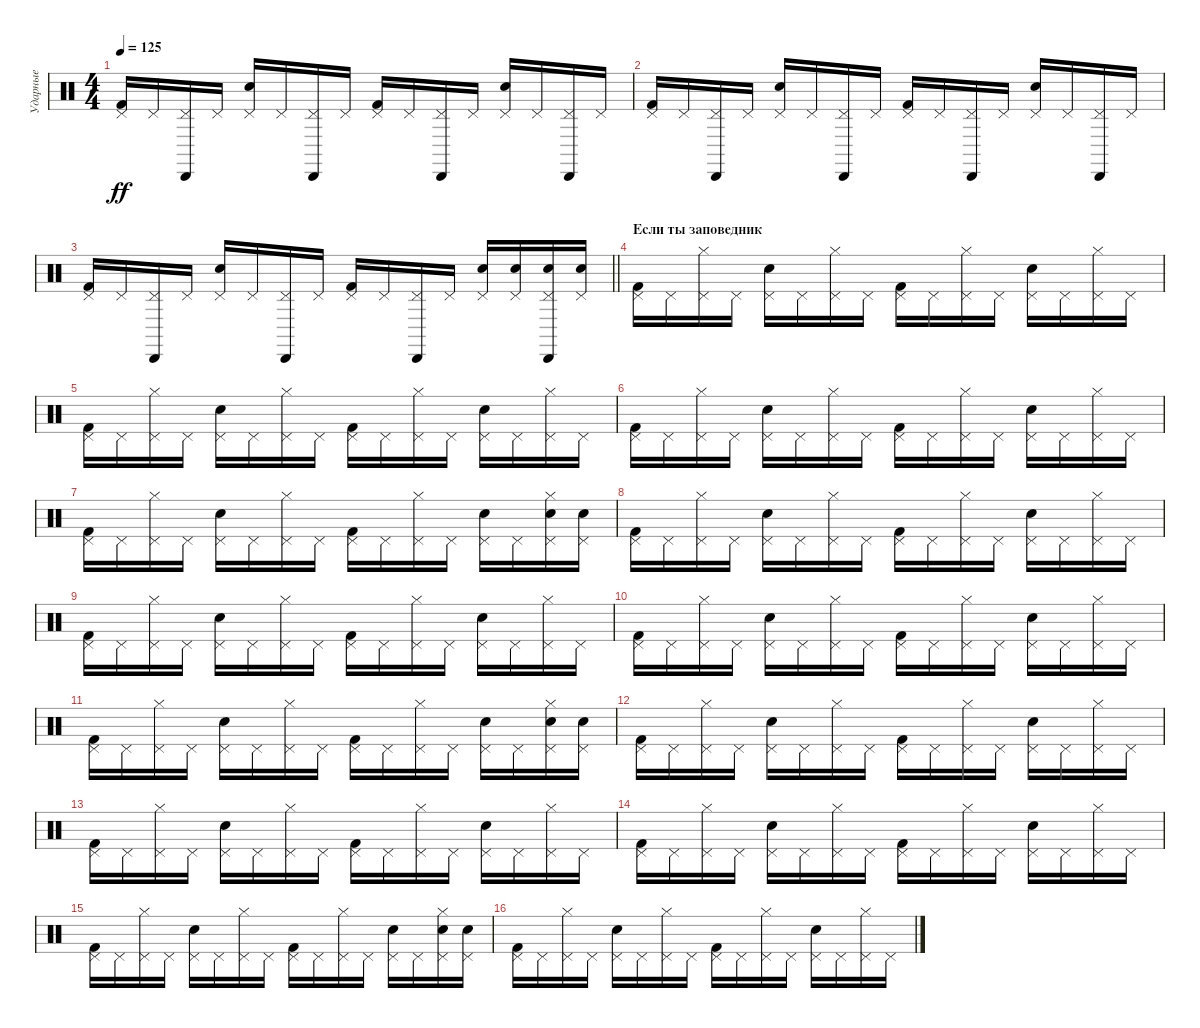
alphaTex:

\track ("Ударные" "Ударные") {instrument percussion}
\staff {score}
\articulation defaults
\ts (4 4)
\tempo 125
\clef neutral
\ks c
("Kick (hit) 2" "Pedal Hi-Hat (hit)").16{dy ff} "Pedal Hi-Hat (hit)".16 ("Cabasa (hit)" "Pedal Hi-Hat (hit)").16 "Pedal Hi-Hat (hit)".16 ("Snare (hit) 2" "Pedal Hi-Hat (hit)").16 "Pedal Hi-Hat (hit)".16 ("Cabasa (hit)" "Pedal Hi-Hat (hit)").16 "Pedal Hi-Hat (hit)".16 ("Kick (hit) 2" "Pedal Hi-Hat (hit)").16 "Pedal Hi-Hat (hit)".16 ("Cabasa (hit)" "Pedal Hi-Hat (hit)").16 "Pedal Hi-Hat (hit)".16 ("Snare (hit) 2" "Pedal Hi-Hat (hit)").16 "Pedal Hi-Hat (hit)".16 ("Cabasa (hit)" "Pedal Hi-Hat (hit)").16 "Pedal Hi-Hat (hit)".16 |
("Kick (hit) 2" "Pedal Hi-Hat (hit)").16 "Pedal Hi-Hat (hit)".16 ("Cabasa (hit)" "Pedal Hi-Hat (hit)").16 "Pedal Hi-Hat (hit)".16 ("Snare (hit) 2" "Pedal Hi-Hat (hit)").16 "Pedal Hi-Hat (hit)".16 ("Cabasa (hit)" "Pedal Hi-Hat (hit)").16 "Pedal Hi-Hat (hit)".16 ("Kick (hit) 2" "Pedal Hi-Hat (hit)").16 "Pedal Hi-Hat (hit)".16 ("Cabasa (hit)" "Pedal Hi-Hat (hit)").16 "Pedal Hi-Hat (hit)".16 ("Snare (hit) 2" "Pedal Hi-Hat (hit)").16 "Pedal Hi-Hat (hit)".16 ("Cabasa (hit)" "Pedal Hi-Hat (hit)").16 "Pedal Hi-Hat (hit)".16 |
\barLineRight lightlight
("Kick (hit) 2" "Pedal Hi-Hat (hit)").16 "Pedal Hi-Hat (hit)".16 ("Cabasa (hit)" "Pedal Hi-Hat (hit)").16 "Pedal Hi-Hat (hit)".16 ("Snare (hit) 2" "Pedal Hi-Hat (hit)").16 "Pedal Hi-Hat (hit)".16 ("Cabasa (hit)" "Pedal Hi-Hat (hit)").16 "Pedal Hi-Hat (hit)".16 ("Kick (hit) 2" "Pedal Hi-Hat (hit)").16 "Pedal Hi-Hat (hit)".16 ("Cabasa (hit)" "Pedal Hi-Hat (hit)").16 "Pedal Hi-Hat (hit)".16 ("Snare (hit) 2" "Pedal Hi-Hat (hit)").16 ("Snare (hit) 2" "Pedal Hi-Hat (hit)").16 ("Cabasa (hit)" "Snare (hit) 2" "Pedal Hi-Hat (hit)").16 ("Snare (hit) 2" "Pedal Hi-Hat (hit)").16 |
\section ("" "Если ты заповедник")
("Kick (hit) 2" "Pedal Hi-Hat (hit)").16 "Pedal Hi-Hat (hit)".16 ("Hi-Hat (closed)" "Pedal Hi-Hat (hit)").16 "Pedal Hi-Hat (hit)".16 ("Snare (hit) 2" "Pedal Hi-Hat (hit)").16 "Pedal Hi-Hat (hit)".16 ("Hi-Hat (closed)" "Pedal Hi-Hat (hit)").16 "Pedal Hi-Hat (hit)".16 ("Kick (hit) 2" "Pedal Hi-Hat (hit)").16 "Pedal Hi-Hat (hit)".16 ("Hi-Hat (closed)" "Pedal Hi-Hat (hit)").16 "Pedal Hi-Hat (hit)".16 ("Snare (hit) 2" "Pedal Hi-Hat (hit)").16 "Pedal Hi-Hat (hit)".16 ("Hi-Hat (closed)" "Pedal Hi-Hat (hit)").16 "Pedal Hi-Hat (hit)".16 |
("Kick (hit) 2" "Pedal Hi-Hat (hit)").16 "Pedal Hi-Hat (hit)".16 ("Hi-Hat (closed)" "Pedal Hi-Hat (hit)").16 "Pedal Hi-Hat (hit)".16 ("Snare (hit) 2" "Pedal Hi-Hat (hit)").16 "Pedal Hi-Hat (hit)".16 ("Hi-Hat (closed)" "Pedal Hi-Hat (hit)").16 "Pedal Hi-Hat (hit)".16 ("Kick (hit) 2" "Pedal Hi-Hat (hit)").16 "Pedal Hi-Hat (hit)".16 ("Hi-Hat (closed)" "Pedal Hi-Hat (hit)").16 "Pedal Hi-Hat (hit)".16 ("Snare (hit) 2" "Pedal Hi-Hat (hit)").16 "Pedal Hi-Hat (hit)".16 ("Hi-Hat (closed)" "Pedal Hi-Hat (hit)").16 "Pedal Hi-Hat (hit)".16 |
("Kick (hit) 2" "Pedal Hi-Hat (hit)").16 "Pedal Hi-Hat (hit)".16 ("Hi-Hat (closed)" "Pedal Hi-Hat (hit)").16 "Pedal Hi-Hat (hit)".16 ("Snare (hit) 2" "Pedal Hi-Hat (hit)").16 "Pedal Hi-Hat (hit)".16 ("Hi-Hat (closed)" "Pedal Hi-Hat (hit)").16 "Pedal Hi-Hat (hit)".16 ("Kick (hit) 2" "Pedal Hi-Hat (hit)").16 "Pedal Hi-Hat (hit)".16 ("Hi-Hat (closed)" "Pedal Hi-Hat (hit)").16 "Pedal Hi-Hat (hit)".16 ("Snare (hit) 2" "Pedal Hi-Hat (hit)").16 "Pedal Hi-Hat (hit)".16 ("Hi-Hat (closed)" "Pedal Hi-Hat (hit)").16 "Pedal Hi-Hat (hit)".16 |
("Kick (hit) 2" "Pedal Hi-Hat (hit)").16 "Pedal Hi-Hat (hit)".16 ("Hi-Hat (closed)" "Pedal Hi-Hat (hit)").16 "Pedal Hi-Hat (hit)".16 ("Snare (hit) 2" "Pedal Hi-Hat (hit)").16 "Pedal Hi-Hat (hit)".16 ("Hi-Hat (closed)" "Pedal Hi-Hat (hit)").16 "Pedal Hi-Hat (hit)".16 ("Kick (hit) 2" "Pedal Hi-Hat (hit)").16 "Pedal Hi-Hat (hit)".16 ("Hi-Hat (closed)" "Pedal Hi-Hat (hit)").16 "Pedal Hi-Hat (hit)".16 ("Snare (hit) 2" "Pedal Hi-Hat (hit)").16 "Pedal Hi-Hat (hit)".16 ("Hi-Hat (closed)" "Snare (hit) 2" "Pedal Hi-Hat (hit)").16 ("Snare (hit) 2" "Pedal Hi-Hat (hit)").16 |
("Kick (hit) 2" "Pedal Hi-Hat (hit)").16 "Pedal Hi-Hat (hit)".16 ("Hi-Hat (closed)" "Pedal Hi-Hat (hit)").16 "Pedal Hi-Hat (hit)".16 ("Snare (hit) 2" "Pedal Hi-Hat (hit)").16 "Pedal Hi-Hat (hit)".16 ("Hi-Hat (closed)" "Pedal Hi-Hat (hit)").16 "Pedal Hi-Hat (hit)".16 ("Kick (hit) 2" "Pedal Hi-Hat (hit)").16 "Pedal Hi-Hat (hit)".16 ("Hi-Hat (closed)" "Pedal Hi-Hat (hit)").16 "Pedal Hi-Hat (hit)".16 ("Snare (hit) 2" "Pedal Hi-Hat (hit)").16 "Pedal Hi-Hat (hit)".16 ("Hi-Hat (closed)" "Pedal Hi-Hat (hit)").16 "Pedal Hi-Hat (hit)".16 |
("Kick (hit) 2" "Pedal Hi-Hat (hit)").16 "Pedal Hi-Hat (hit)".16 ("Hi-Hat (closed)" "Pedal Hi-Hat (hit)").16 "Pedal Hi-Hat (hit)".16 ("Snare (hit) 2" "Pedal Hi-Hat (hit)").16 "Pedal Hi-Hat (hit)".16 ("Hi-Hat (closed)" "Pedal Hi-Hat (hit)").16 "Pedal Hi-Hat (hit)".16 ("Kick (hit) 2" "Pedal Hi-Hat (hit)").16 "Pedal Hi-Hat (hit)".16 ("Hi-Hat (closed)" "Pedal Hi-Hat (hit)").16 "Pedal Hi-Hat (hit)".16 ("Snare (hit) 2" "Pedal Hi-Hat (hit)").16 "Pedal Hi-Hat (hit)".16 ("Hi-Hat (closed)" "Pedal Hi-Hat (hit)").16 "Pedal Hi-Hat (hit)".16 |
("Kick (hit) 2" "Pedal Hi-Hat (hit)").16 "Pedal Hi-Hat (hit)".16 ("Hi-Hat (closed)" "Pedal Hi-Hat (hit)").16 "Pedal Hi-Hat (hit)".16 ("Snare (hit) 2" "Pedal Hi-Hat (hit)").16 "Pedal Hi-Hat (hit)".16 ("Hi-Hat (closed)" "Pedal Hi-Hat (hit)").16 "Pedal Hi-Hat (hit)".16 ("Kick (hit) 2" "Pedal Hi-Hat (hit)").16 "Pedal Hi-Hat (hit)".16 ("Hi-Hat (closed)" "Pedal Hi-Hat (hit)").16 "Pedal Hi-Hat (hit)".16 ("Snare (hit) 2" "Pedal Hi-Hat (hit)").16 "Pedal Hi-Hat (hit)".16 ("Hi-Hat (closed)" "Pedal Hi-Hat (hit)").16 "Pedal Hi-Hat (hit)".16 |
("Kick (hit) 2" "Pedal Hi-Hat (hit)").16 "Pedal Hi-Hat (hit)".16 ("Hi-Hat (closed)" "Pedal Hi-Hat (hit)").16 "Pedal Hi-Hat (hit)".16 ("Snare (hit) 2" "Pedal Hi-Hat (hit)").16 "Pedal Hi-Hat (hit)".16 ("Hi-Hat (closed)" "Pedal Hi-Hat (hit)").16 "Pedal Hi-Hat (hit)".16 ("Kick (hit) 2" "Pedal Hi-Hat (hit)").16 "Pedal Hi-Hat (hit)".16 ("Hi-Hat (closed)" "Pedal Hi-Hat (hit)").16 "Pedal Hi-Hat (hit)".16 ("Snare (hit) 2" "Pedal Hi-Hat (hit)").16 "Pedal Hi-Hat (hit)".16 ("Hi-Hat (closed)" "Snare (hit) 2" "Pedal Hi-Hat (hit)").16 ("Snare (hit) 2" "Pedal Hi-Hat (hit)").16 |
("Kick (hit) 2" "Pedal Hi-Hat (hit)").16 "Pedal Hi-Hat (hit)".16 ("Hi-Hat (closed)" "Pedal Hi-Hat (hit)").16 "Pedal Hi-Hat (hit)".16 ("Snare (hit) 2" "Pedal Hi-Hat (hit)").16 "Pedal Hi-Hat (hit)".16 ("Hi-Hat (closed)" "Pedal Hi-Hat (hit)").16 "Pedal Hi-Hat (hit)".16 ("Kick (hit) 2" "Pedal Hi-Hat (hit)").16 "Pedal Hi-Hat (hit)".16 ("Hi-Hat (closed)" "Pedal Hi-Hat (hit)").16 "Pedal Hi-Hat (hit)".16 ("Snare (hit) 2" "Pedal Hi-Hat (hit)").16 "Pedal Hi-Hat (hit)".16 ("Hi-Hat (closed)" "Pedal Hi-Hat (hit)").16 "Pedal Hi-Hat (hit)".16 |
("Kick (hit) 2" "Pedal Hi-Hat (hit)").16 "Pedal Hi-Hat (hit)".16 ("Hi-Hat (closed)" "Pedal Hi-Hat (hit)").16 "Pedal Hi-Hat (hit)".16 ("Snare (hit) 2" "Pedal Hi-Hat (hit)").16 "Pedal Hi-Hat (hit)".16 ("Hi-Hat (closed)" "Pedal Hi-Hat (hit)").16 "Pedal Hi-Hat (hit)".16 ("Kick (hit) 2" "Pedal Hi-Hat (hit)").16 "Pedal Hi-Hat (hit)".16 ("Hi-Hat (closed)" "Pedal Hi-Hat (hit)").16 "Pedal Hi-Hat (hit)".16 ("Snare (hit) 2" "Pedal Hi-Hat (hit)").16 "Pedal Hi-Hat (hit)".16 ("Hi-Hat (closed)" "Pedal Hi-Hat (hit)").16 "Pedal Hi-Hat (hit)".16 |
("Kick (hit) 2" "Pedal Hi-Hat (hit)").16 "Pedal Hi-Hat (hit)".16 ("Hi-Hat (closed)" "Pedal Hi-Hat (hit)").16 "Pedal Hi-Hat (hit)".16 ("Snare (hit) 2" "Pedal Hi-Hat (hit)").16 "Pedal Hi-Hat (hit)".16 ("Hi-Hat (closed)" "Pedal Hi-Hat (hit)").16 "Pedal Hi-Hat (hit)".16 ("Kick (hit) 2" "Pedal Hi-Hat (hit)").16 "Pedal Hi-Hat (hit)".16 ("Hi-Hat (closed)" "Pedal Hi-Hat (hit)").16 "Pedal Hi-Hat (hit)".16 ("Snare (hit) 2" "Pedal Hi-Hat (hit)").16 "Pedal Hi-Hat (hit)".16 ("Hi-Hat (closed)" "Pedal Hi-Hat (hit)").16 "Pedal Hi-Hat (hit)".16 |
("Kick (hit) 2" "Pedal Hi-Hat (hit)").16 "Pedal Hi-Hat (hit)".16 ("Hi-Hat (closed)" "Pedal Hi-Hat (hit)").16 "Pedal Hi-Hat (hit)".16 ("Snare (hit) 2" "Pedal Hi-Hat (hit)").16 "Pedal Hi-Hat (hit)".16 ("Hi-Hat (closed)" "Pedal Hi-Hat (hit)").16 "Pedal Hi-Hat (hit)".16 ("Kick (hit) 2" "Pedal Hi-Hat (hit)").16 "Pedal Hi-Hat (hit)".16 ("Hi-Hat (closed)" "Pedal Hi-Hat (hit)").16 "Pedal Hi-Hat (hit)".16 ("Snare (hit) 2" "Pedal Hi-Hat (hit)").16 "Pedal Hi-Hat (hit)".16 ("Hi-Hat (closed)" "Snare (hit) 2" "Pedal Hi-Hat (hit)").16 ("Snare (hit) 2" "Pedal Hi-Hat (hit)").16 |
("Kick (hit) 2" "Pedal Hi-Hat (hit)").16 "Pedal Hi-Hat (hit)".16 ("Hi-Hat (closed)" "Pedal Hi-Hat (hit)").16 "Pedal Hi-Hat (hit)".16 ("Snare (hit) 2" "Pedal Hi-Hat (hit)").16 "Pedal Hi-Hat (hit)".16 ("Hi-Hat (closed)" "Pedal Hi-Hat (hit)").16 "Pedal Hi-Hat (hit)".16 ("Kick (hit) 2" "Pedal Hi-Hat (hit)").16 "Pedal Hi-Hat (hit)".16 ("Hi-Hat (closed)" "Pedal Hi-Hat (hit)").16 "Pedal Hi-Hat (hit)".16 ("Snare (hit) 2" "Pedal Hi-Hat (hit)").16 "Pedal Hi-Hat (hit)".16 ("Hi-Hat (closed)" "Pedal Hi-Hat (hit)").16 "Pedal Hi-Hat (hit)".16
